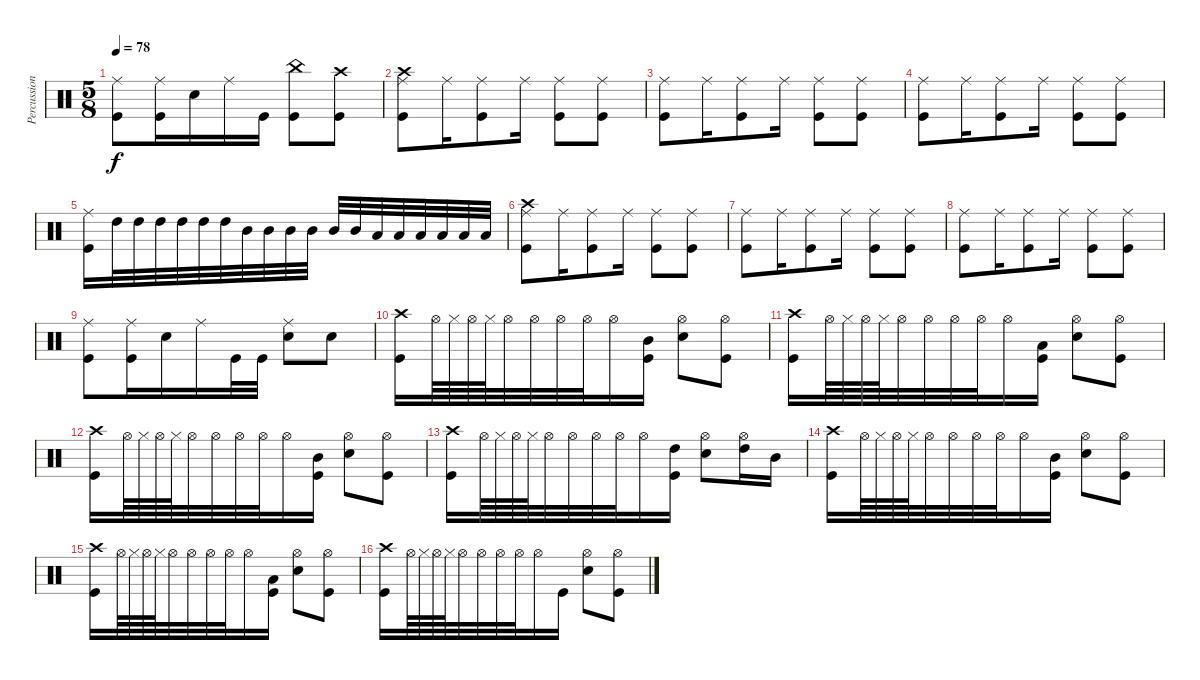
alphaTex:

\track ("Percussions" "Percussion") {instrument percussion}
\staff {score}
\articulation defaults
\ts (5 8)
\tempo 78
\clef neutral
\ks c
("Ride (middle)" "Kick (hit)").8{dy f} ("Ride (middle)" "Kick (hit)").16 "Snare (hit) 2".16 "Ride (middle)".16 "Kick (hit)".16 ("China (hit)" "Kick (hit)").8 ("Crash high (hit)" "Kick (hit)").8 |
("Crash high (hit)" "Ride (middle)" "Kick (hit)").8 "Ride (middle)".16 ("Ride (middle)" "Kick (hit)").8 "Ride (middle)".16 ("Ride (middle)" "Kick (hit)").8 ("Ride (middle)" "Kick (hit)").8 |
("Ride (middle)" "Kick (hit)").8 "Ride (middle)".16 ("Ride (middle)" "Kick (hit)").8 "Ride (middle)".16 ("Ride (middle)" "Kick (hit)").8 ("Ride (middle)" "Kick (hit)").8 |
("Ride (middle)" "Kick (hit)").8 "Ride (middle)".16 ("Ride (middle)" "Kick (hit)").8 "Ride (middle)".16 ("Ride (middle)" "Kick (hit)").8 ("Ride (middle)" "Kick (hit)").8 |
("Ride (middle)" "Kick (hit)").16 "High Tom (hit)".32 "High Tom (hit)".32 "High Tom (hit)".32 "High Tom (hit)".32 "High Tom (hit)".32 "High Tom (hit)".32 "Mid Tom (hit)".32 "Mid Tom (hit)".32 "Mid Tom (hit)".32 "Mid Tom (hit)".32 "Mid Tom (hit)".32 "Mid Tom (hit)".32 "Low Tom (hit)".32 "Low Tom (hit)".32 "Low Tom (hit)".32 "Low Tom (hit)".32 "Low Tom (hit)".32 "Low Tom (hit)".32 |
("Crash high (hit)" "Ride (middle)" "Kick (hit)").8 "Ride (middle)".16 ("Ride (middle)" "Kick (hit)").8 "Ride (middle)".16 ("Ride (middle)" "Kick (hit)").8 ("Ride (middle)" "Kick (hit)").8 |
("Ride (middle)" "Kick (hit)").8 "Ride (middle)".16 ("Ride (middle)" "Kick (hit)").8 "Ride (middle)".16 ("Ride (middle)" "Kick (hit)").8 ("Ride (middle)" "Kick (hit)").8 |
("Ride (middle)" "Kick (hit)").8 "Ride (middle)".16 ("Ride (middle)" "Kick (hit)").8 "Ride (middle)".16 ("Ride (middle)" "Kick (hit)").8 ("Ride (middle)" "Kick (hit)").8 |
("Ride (middle)" "Kick (hit)").8 ("Ride (middle)" "Kick (hit)").16 "Snare (hit) 2".16 "Ride (middle)".16 "Kick (hit)".32 "Kick (hit)".32 ("Ride (middle)" "Snare (hit) 2").8 "Snare (hit) 2".8 |
("Crash high (hit)" "Kick (hit)").16 "Hi-Hat (open)".64 "Hi-Hat (closed)".64 "Hi-Hat (open)".64 "Hi-Hat (closed)".64 "Hi-Hat (open)".32 "Hi-Hat (open)".32 "Hi-Hat (open)".32 "Hi-Hat (open)".32 "Hi-Hat (open)".16 ("Mid Tom (hit)" "Kick (hit)").16 ("Hi-Hat (open)" "Snare (hit) 2").8 ("Hi-Hat (open)" "Kick (hit)").8 |
("Crash high (hit)" "Kick (hit)").16 "Hi-Hat (open)".64 "Hi-Hat (closed)".64 "Hi-Hat (open)".64 "Hi-Hat (closed)".64 "Hi-Hat (open)".32 "Hi-Hat (open)".32 "Hi-Hat (open)".32 "Hi-Hat (open)".32 "Hi-Hat (open)".16 ("Low Tom (hit)" "Kick (hit)").16 ("Hi-Hat (open)" "Snare (hit) 2").8 ("Hi-Hat (open)" "Kick (hit)").8 |
("Crash high (hit)" "Kick (hit)").16 "Hi-Hat (open)".64 "Hi-Hat (closed)".64 "Hi-Hat (open)".64 "Hi-Hat (closed)".64 "Hi-Hat (open)".32 "Hi-Hat (open)".32 "Hi-Hat (open)".32 "Hi-Hat (open)".32 "Hi-Hat (open)".16 ("Mid Tom (hit)" "Kick (hit)").16 ("Hi-Hat (open)" "Snare (hit) 2").8 ("Hi-Hat (open)" "Kick (hit)").8 |
("Crash high (hit)" "Kick (hit)").16 "Hi-Hat (open)".64 "Hi-Hat (closed)".64 "Hi-Hat (open)".64 "Hi-Hat (closed)".64 "Hi-Hat (open)".32 "Hi-Hat (open)".32 "Hi-Hat (open)".32 "Hi-Hat (open)".32 "Hi-Hat (open)".16 ("High Tom (hit)" "Kick (hit)").16 ("Hi-Hat (open)" "Snare (hit) 2").8 ("Hi-Hat (open)" "High Tom (hit)").16 "Mid Tom (hit)".16 |
("Crash high (hit)" "Kick (hit)").16 "Hi-Hat (open)".64 "Hi-Hat (closed)".64 "Hi-Hat (open)".64 "Hi-Hat (closed)".64 "Hi-Hat (open)".32 "Hi-Hat (open)".32 "Hi-Hat (open)".32 "Hi-Hat (open)".32 "Hi-Hat (open)".16 ("Mid Tom (hit)" "Kick (hit)").16 ("Hi-Hat (open)" "Snare (hit) 2").8 ("Hi-Hat (open)" "Kick (hit)").8 |
("Crash high (hit)" "Kick (hit)").16 "Hi-Hat (open)".64 "Hi-Hat (closed)".64 "Hi-Hat (open)".64 "Hi-Hat (closed)".64 "Hi-Hat (open)".32 "Hi-Hat (open)".32 "Hi-Hat (open)".32 "Hi-Hat (open)".32 "Hi-Hat (open)".16 ("Low Tom (hit)" "Kick (hit)").16 ("Hi-Hat (open)" "Snare (hit) 2").8 ("Hi-Hat (open)" "Kick (hit)").8 |
("Crash high (hit)" "Kick (hit)").16 "Hi-Hat (open)".64 "Hi-Hat (closed)".64 "Hi-Hat (open)".64 "Hi-Hat (closed)".64 "Hi-Hat (open)".32 "Hi-Hat (open)".32 "Hi-Hat (open)".32 "Hi-Hat (open)".32 "Hi-Hat (open)".16 "Kick (hit)".16 ("Hi-Hat (open)" "Snare (hit) 2").8 ("Hi-Hat (open)" "Kick (hit)").8
